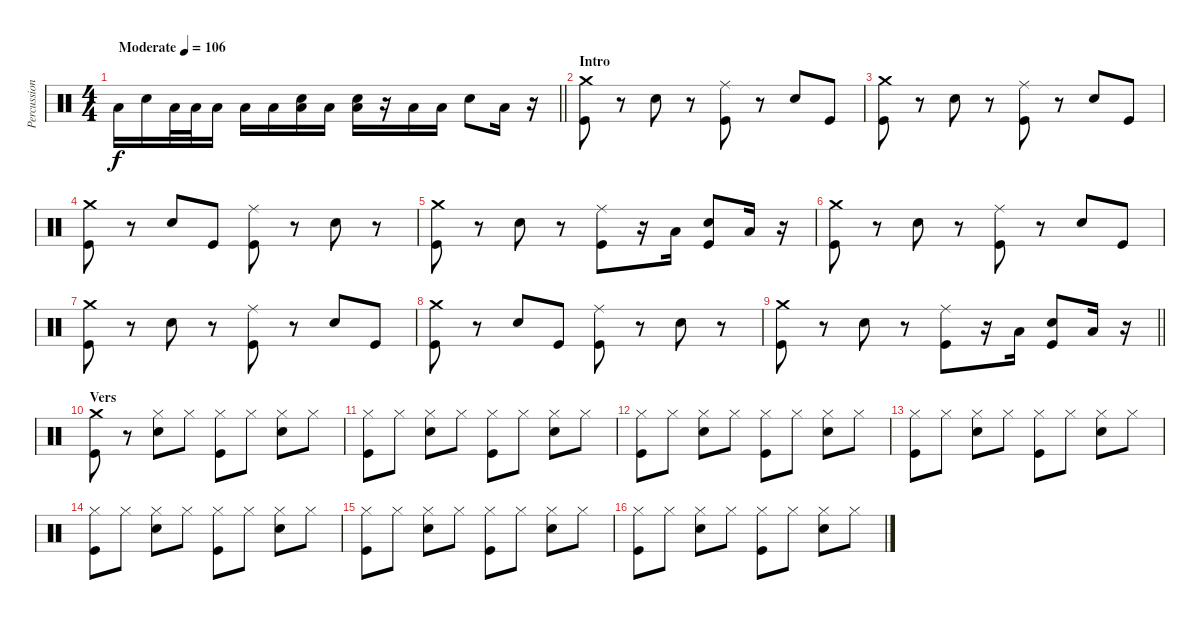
\track ("Percussion" "Percussion") {instrument percussion}
\staff {score}
\articulation defaults
\ts (4 4)
\tempo (106 "Moderate")
\clef neutral
\barLineRight lightlight
\ks c "Low Tom (hit)".16{dy f} "Electric Snare (hit)".16 "Low Tom (hit)".32 "Low Tom (hit)".32 "Low Tom (hit)".16 "Low Tom (hit)".16 "Low Tom (hit)".16
("Low Tom (hit)" "Electric Snare (hit)").16 "Low Tom (hit)".16 ("Electric Snare (hit)" "Low Tom (hit)").16 r.16 "Low Tom (hit)".16 "Low Tom (hit)".16 "Electric Snare (hit)".8 "Low Tom (hit)".16 r.16 |
\section ("" "Intro")
("Kick (hit)" "Crash medium (hit)").8 r.8 "Electric Snare (hit)".8 r.8 ("Kick (hit)" "Ride (middle)").8 r.8 "Electric Snare (hit)".8 "Kick (hit)".8 |
("Kick (hit)" "Crash medium (hit)").8 r.8 "Electric Snare (hit)".8 r.8 ("Kick (hit)" "Ride (middle)").8 r.8 "Electric Snare (hit)".8 "Kick (hit)".8 |
("Kick (hit)" "Crash medium (hit)").8 r.8 "Electric Snare (hit)".8 "Kick (hit)".8 ("Kick (hit)" "Ride (middle)").8 r.8 "Electric Snare (hit)".8 r.8 |
("Kick (hit)" "Crash medium (hit)").8 r.8 "Electric Snare (hit)".8 r.8 ("Kick (hit)" "Ride (middle)").8 r.16 "Low Tom (hit)".16 ("Kick (hit)" "Electric Snare (hit)").8 "Low Tom (hit)".16 r.16 |
("Kick (hit)" "Crash medium (hit)").8 r.8 "Electric Snare (hit)".8 r.8 ("Kick (hit)" "Ride (middle)").8 r.8 "Electric Snare (hit)".8 "Kick (hit)".8 |
("Kick (hit)" "Crash medium (hit)").8 r.8 "Electric Snare (hit)".8 r.8 ("Kick (hit)" "Ride (middle)").8 r.8 "Electric Snare (hit)".8 "Kick (hit)".8 |
("Kick (hit)" "Crash medium (hit)").8 r.8 "Electric Snare (hit)".8 "Kick (hit)".8 ("Kick (hit)" "Ride (middle)").8 r.8 "Electric Snare (hit)".8 r.8 |
\barLineRight lightlight
("Kick (hit)" "Crash medium (hit)").8 r.8 "Electric Snare (hit)".8 r.8 ("Kick (hit)" "Ride (middle)").8 r.16 "Low Tom (hit)".16 ("Kick (hit)" "Electric Snare (hit)").8 "Low Tom (hit)".16 r.16 |
\section ("" "Vers")
("Kick (hit)" "Crash medium (hit)").8 r.8 ("Electric Snare (hit)" "Hi-Hat (closed)").8 "Hi-Hat (closed)".8 ("Kick (hit)" "Hi-Hat (closed)").8 "Hi-Hat (closed)".8 ("Electric Snare (hit)" "Hi-Hat (closed)").8 "Hi-Hat (closed)".8 |
("Kick (hit)" "Hi-Hat (closed)").8 "Hi-Hat (closed)".8 ("Electric Snare (hit)" "Hi-Hat (closed)").8 "Hi-Hat (closed)".8 ("Kick (hit)" "Hi-Hat (closed)").8 "Hi-Hat (closed)".8 ("Electric Snare (hit)" "Hi-Hat (closed)").8 "Hi-Hat (closed)".8 |
("Kick (hit)" "Hi-Hat (closed)").8 "Hi-Hat (closed)".8 ("Electric Snare (hit)" "Hi-Hat (closed)").8 "Hi-Hat (closed)".8 ("Kick (hit)" "Hi-Hat (closed)").8 "Hi-Hat (closed)".8 ("Electric Snare (hit)" "Hi-Hat (closed)").8 "Hi-Hat (closed)".8 |
("Kick (hit)" "Hi-Hat (closed)").8 "Hi-Hat (closed)".8 ("Electric Snare (hit)" "Hi-Hat (closed)").8 "Hi-Hat (closed)".8 ("Kick (hit)" "Hi-Hat (closed)").8 "Hi-Hat (closed)".8 ("Electric Snare (hit)" "Hi-Hat (closed)").8 "Hi-Hat (closed)".8 |
("Kick (hit)" "Hi-Hat (closed)").8 "Hi-Hat (closed)".8 ("Electric Snare (hit)" "Hi-Hat (closed)").8 "Hi-Hat (closed)".8 ("Kick (hit)" "Hi-Hat (closed)").8 "Hi-Hat (closed)".8 ("Electric Snare (hit)" "Hi-Hat (closed)").8 "Hi-Hat (closed)".8 |
("Kick (hit)" "Hi-Hat (closed)").8 "Hi-Hat (closed)".8 ("Electric Snare (hit)" "Hi-Hat (closed)").8 "Hi-Hat (closed)".8 ("Kick (hit)" "Hi-Hat (closed)").8 "Hi-Hat (closed)".8 ("Electric Snare (hit)" "Hi-Hat (closed)").8 "Hi-Hat (closed)".8 |
("Kick (hit)" "Hi-Hat (closed)").8 "Hi-Hat (closed)".8 ("Electric Snare (hit)" "Hi-Hat (closed)").8 "Hi-Hat (closed)".8 ("Kick (hit)" "Hi-Hat (closed)").8 "Hi-Hat (closed)".8 ("Electric Snare (hit)" "Hi-Hat (closed)").8 "Hi-Hat (closed)".8
